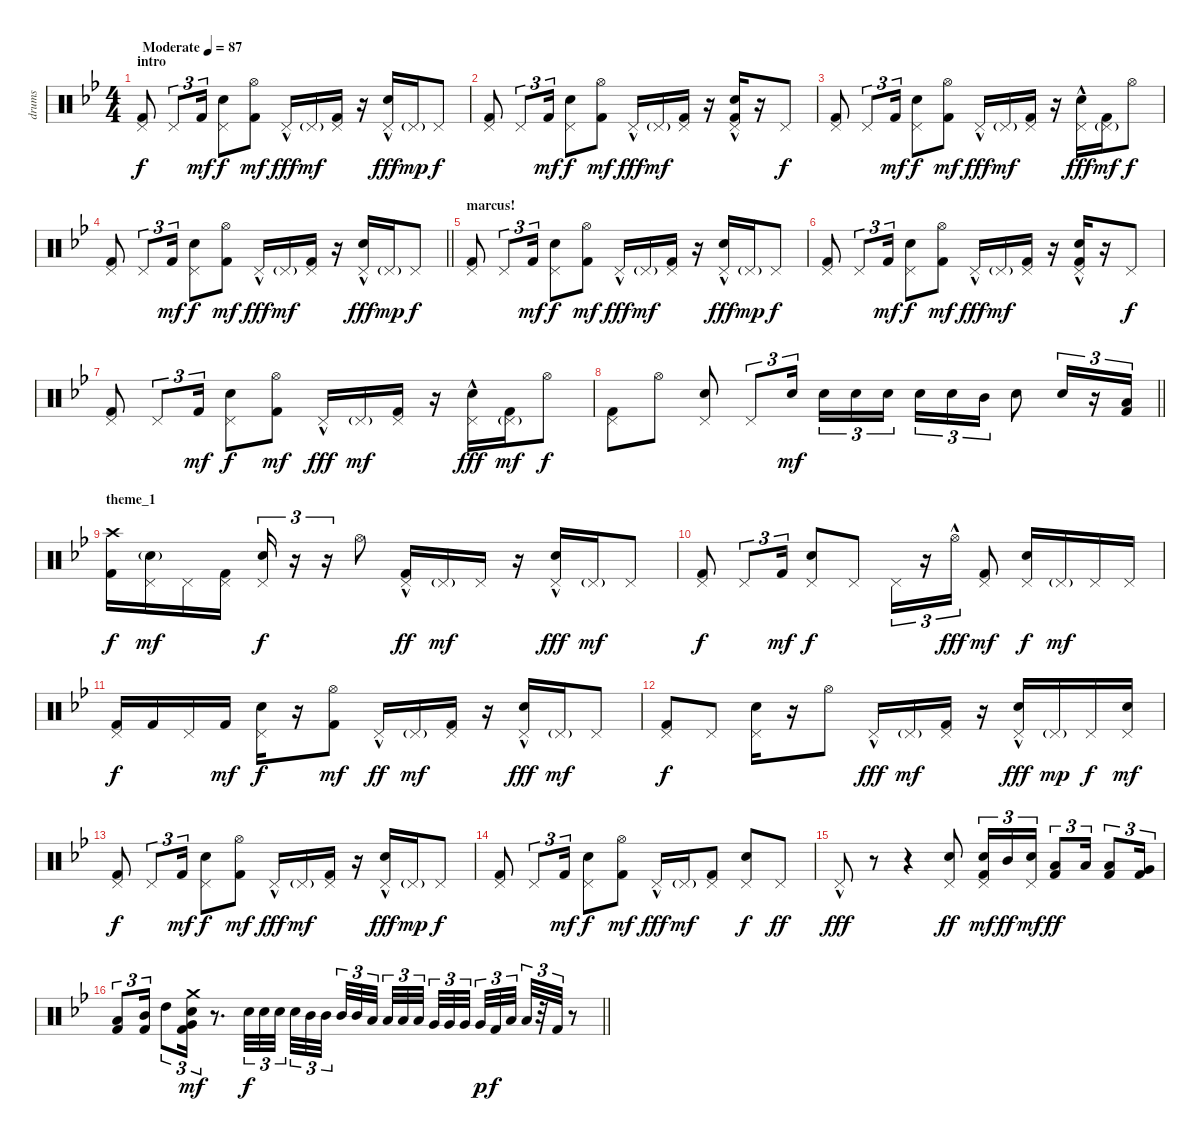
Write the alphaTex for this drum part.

\track ("drums" "drums") {instrument percussion}
\staff {score}
\articulation defaults
\ts (4 4)
\section ("" "intro")
\tempo (87 "Moderate")
\clef neutral
\ks gminor
("Pedal Hi-Hat (hit)" "Kick (hit) 2").8{dy f} "Pedal Hi-Hat (hit)".8{tu (3 2)} "Kick (hit) 2".16{tu (3 2) dy mf} ("Pedal Hi-Hat (hit)" "Electric Snare (hit)").8{dy f} ("Hi-Hat (open)" "Kick (hit) 2").8{dy mf} "Pedal Hi-Hat (hit)"{hac}.16{dy fff} "Pedal Hi-Hat (hit)"{g}.16{dy mf} ("Pedal Hi-Hat (hit)" "Kick (hit) 2").16 r.16 ("Pedal Hi-Hat (hit)"{hac} "Electric Snare (hit)").16{dy fff} "Pedal Hi-Hat (hit)"{g}.16{dy mp} "Pedal Hi-Hat (hit)".8{dy f} |
("Pedal Hi-Hat (hit)" "Kick (hit) 2").8 "Pedal Hi-Hat (hit)".8{tu (3 2)} "Kick (hit) 2".16{tu (3 2) dy mf} ("Pedal Hi-Hat (hit)" "Electric Snare (hit)").8{dy f} ("Hi-Hat (open)" "Kick (hit) 2").8{dy mf} "Pedal Hi-Hat (hit)"{hac}.16{dy fff} "Pedal Hi-Hat (hit)"{g}.16{dy mf} ("Pedal Hi-Hat (hit)" "Kick (hit) 2").16 r.16 ("Pedal Hi-Hat (hit)"{hac} "Electric Snare (hit)" "Kick (hit) 2").16 r.16 "Pedal Hi-Hat (hit)".8{dy f} |
("Pedal Hi-Hat (hit)" "Kick (hit) 2").8 "Pedal Hi-Hat (hit)".8{tu (3 2)} "Kick (hit) 2".16{tu (3 2) dy mf} ("Pedal Hi-Hat (hit)" "Electric Snare (hit)").8{dy f} ("Hi-Hat (open)" "Kick (hit) 2").8{dy mf} "Pedal Hi-Hat (hit)"{hac}.16{dy fff} "Pedal Hi-Hat (hit)"{g}.16{dy mf} ("Pedal Hi-Hat (hit)" "Kick (hit) 2").16 r.16 ("Pedal Hi-Hat (hit)"{hac} "Electric Snare (hit)").16{dy fff} ("Pedal Hi-Hat (hit)"{g} "Kick (hit) 2").16{dy mf} "Hi-Hat (open)".8{dy f} |
\barLineRight lightlight
("Pedal Hi-Hat (hit)" "Kick (hit) 2").8 "Pedal Hi-Hat (hit)".8{tu (3 2)} "Kick (hit) 2".16{tu (3 2) dy mf} ("Pedal Hi-Hat (hit)" "Electric Snare (hit)").8{dy f} ("Hi-Hat (open)" "Kick (hit) 2").8{dy mf} "Pedal Hi-Hat (hit)"{hac}.16{dy fff} "Pedal Hi-Hat (hit)"{g}.16{dy mf} ("Pedal Hi-Hat (hit)" "Kick (hit) 2").16 r.16 ("Pedal Hi-Hat (hit)"{hac} "Electric Snare (hit)").16{dy fff} "Pedal Hi-Hat (hit)"{g}.16{dy mp} "Pedal Hi-Hat (hit)".8{dy f} |
\section ("" "marcus!")
("Pedal Hi-Hat (hit)" "Kick (hit) 2").8 "Pedal Hi-Hat (hit)".8{tu (3 2)} "Kick (hit) 2".16{tu (3 2) dy mf} ("Pedal Hi-Hat (hit)" "Electric Snare (hit)").8{dy f} ("Hi-Hat (open)" "Kick (hit) 2").8{dy mf} "Pedal Hi-Hat (hit)"{hac}.16{dy fff} "Pedal Hi-Hat (hit)"{g}.16{dy mf} ("Pedal Hi-Hat (hit)" "Kick (hit) 2").16 r.16 ("Pedal Hi-Hat (hit)"{hac} "Electric Snare (hit)").16{dy fff} "Pedal Hi-Hat (hit)"{g}.16{dy mp} "Pedal Hi-Hat (hit)".8{dy f} |
("Pedal Hi-Hat (hit)" "Kick (hit) 2").8 "Pedal Hi-Hat (hit)".8{tu (3 2)} "Kick (hit) 2".16{tu (3 2) dy mf} ("Pedal Hi-Hat (hit)" "Electric Snare (hit)").8{dy f} ("Hi-Hat (open)" "Kick (hit) 2").8{dy mf} "Pedal Hi-Hat (hit)"{hac}.16{dy fff} "Pedal Hi-Hat (hit)"{g}.16{dy mf} ("Pedal Hi-Hat (hit)" "Kick (hit) 2").16 r.16 ("Pedal Hi-Hat (hit)"{hac} "Electric Snare (hit)" "Kick (hit) 2").16 r.16 "Pedal Hi-Hat (hit)".8{dy f} |
("Pedal Hi-Hat (hit)" "Kick (hit) 2").8 "Pedal Hi-Hat (hit)".8{tu (3 2)} "Kick (hit) 2".16{tu (3 2) dy mf} ("Pedal Hi-Hat (hit)" "Electric Snare (hit)").8{dy f} ("Hi-Hat (open)" "Kick (hit) 2").8{dy mf} "Pedal Hi-Hat (hit)"{hac}.16{dy fff} "Pedal Hi-Hat (hit)"{g}.16{dy mf} ("Pedal Hi-Hat (hit)" "Kick (hit) 2").16 r.16 ("Pedal Hi-Hat (hit)"{hac} "Electric Snare (hit)").16{dy fff} ("Pedal Hi-Hat (hit)"{g} "Kick (hit) 2").16{dy mf} "Hi-Hat (open)".8{dy f} |
\barLineRight lightlight
("Pedal Hi-Hat (hit)" "Kick (hit) 2").8 "Hi-Hat (open)".8 ("Pedal Hi-Hat (hit)" "Electric Snare (hit)").8 "Pedal Hi-Hat (hit)".8{tu (3 2)} "Electric Snare (hit)".16{tu (3 2) dy mf} "Electric Snare (hit)".16{tu (3 2)} "Electric Snare (hit)".16{tu (3 2)} "Electric Snare (hit)".16{tu (3 2) beam splitsecondary} "Electric Snare (hit)".16{tu (3 2)} "Electric Snare (hit)".16{tu (3 2)} "Mid Tom (hit)".16{tu (3 2)} "Electric Snare (hit)".8 "Electric Snare (hit)".16{tu (3 2)} r.16{tu (3 2)} ("Low Floor Tom (hit)" "Kick (hit) 2").16{tu (3 2)} |
\section ("" "theme_1")
("Crash high (hit)" "Kick (hit) 2").16{dy f} ("Pedal Hi-Hat (hit)" "Electric Snare (hit)"{g}).16{dy mf} "Pedal Hi-Hat (hit)".16 ("Pedal Hi-Hat (hit)" "Kick (hit) 2").16 ("Pedal Hi-Hat (hit)" "Electric Snare (hit)").16{tu (3 2) dy f} r.16{tu (3 2)} r.16{tu (3 2)} "Hi-Hat (open)".8 ("Pedal Hi-Hat (hit)"{hac} "Kick (hit) 2").16{dy ff} "Pedal Hi-Hat (hit)"{g}.16{dy mf} "Pedal Hi-Hat (hit)".16 r.16 ("Pedal Hi-Hat (hit)"{hac} "Electric Snare (hit)").16{dy fff} "Pedal Hi-Hat (hit)"{g}.16{dy mf} "Pedal Hi-Hat (hit)".8 |
("Pedal Hi-Hat (hit)" "Kick (hit) 2").8{dy f} "Pedal Hi-Hat (hit)".8{tu (3 2)} "Kick (hit) 2".16{tu (3 2) dy mf} ("Pedal Hi-Hat (hit)" "Electric Snare (hit)").8{dy f} "Pedal Hi-Hat (hit)".8 "Pedal Hi-Hat (hit)".16{tu (3 2)} r.16{tu (3 2)} "Hi-Hat (open)"{hac}.16{tu (3 2) dy fff} ("Pedal Hi-Hat (hit)" "Kick (hit) 2").8{dy mf} ("Pedal Hi-Hat (hit)" "Electric Snare (hit)").16{dy f} "Pedal Hi-Hat (hit)"{g}.16{dy mf} "Pedal Hi-Hat (hit)".16 "Pedal Hi-Hat (hit)".16 |
("Pedal Hi-Hat (hit)" "Kick (hit) 2").16{dy f} "Kick (hit) 2".16 "Pedal Hi-Hat (hit)".16 "Kick (hit) 2".16{dy mf} ("Pedal Hi-Hat (hit)" "Electric Snare (hit)").16{dy f} r.16 ("Hi-Hat (open)" "Kick (hit) 2").8{dy mf} "Pedal Hi-Hat (hit)"{hac}.16{dy ff} "Pedal Hi-Hat (hit)"{g}.16{dy mf} ("Pedal Hi-Hat (hit)" "Kick (hit) 2").16 r.16 ("Pedal Hi-Hat (hit)"{hac} "Electric Snare (hit)").16{dy fff} "Pedal Hi-Hat (hit)"{g}.16{dy mf} "Pedal Hi-Hat (hit)".8 |
("Pedal Hi-Hat (hit)" "Kick (hit) 2").8{dy f} "Pedal Hi-Hat (hit)".8 ("Pedal Hi-Hat (hit)" "Electric Snare (hit)").16 r.16 "Hi-Hat (open)".8 "Pedal Hi-Hat (hit)"{hac}.16{dy fff} "Pedal Hi-Hat (hit)"{g}.16{dy mf} ("Pedal Hi-Hat (hit)" "Kick (hit) 2").16 r.16 ("Pedal Hi-Hat (hit)"{hac} "Electric Snare (hit)").16{dy fff} "Pedal Hi-Hat (hit)"{g}.16{dy mp} "Pedal Hi-Hat (hit)".16{dy f} ("Pedal Hi-Hat (hit)" "Electric Snare (hit)").16{dy mf} |
("Pedal Hi-Hat (hit)" "Kick (hit) 2").8{dy f} "Pedal Hi-Hat (hit)".8{tu (3 2)} "Kick (hit) 2".16{tu (3 2) dy mf} ("Pedal Hi-Hat (hit)" "Electric Snare (hit)").8{dy f} ("Hi-Hat (open)" "Kick (hit) 2").8{dy mf} "Pedal Hi-Hat (hit)"{hac}.16{dy fff} "Pedal Hi-Hat (hit)"{g}.16{dy mf} ("Pedal Hi-Hat (hit)" "Kick (hit) 2").16 r.16 ("Pedal Hi-Hat (hit)"{hac} "Electric Snare (hit)").16{dy fff} "Pedal Hi-Hat (hit)"{g}.16{dy mp} "Pedal Hi-Hat (hit)".8{dy f} |
("Pedal Hi-Hat (hit)" "Kick (hit) 2").8 "Pedal Hi-Hat (hit)".8{tu (3 2)} "Kick (hit) 2".16{tu (3 2) dy mf} ("Pedal Hi-Hat (hit)" "Electric Snare (hit)").8{dy f} ("Hi-Hat (open)" "Kick (hit) 2").8{dy mf} "Pedal Hi-Hat (hit)"{hac}.16{dy fff} "Pedal Hi-Hat (hit)"{g}.16{dy mf} ("Pedal Hi-Hat (hit)" "Kick (hit) 2").8 ("Pedal Hi-Hat (hit)" "Electric Snare (hit)").8{dy f} "Pedal Hi-Hat (hit)".8{dy ff} |
"Pedal Hi-Hat (hit)"{hac}.8{dy fff} r.8 r.4 ("Pedal Hi-Hat (hit)" "Electric Snare (hit)").8{dy ff} ("Pedal Hi-Hat (hit)" "Electric Snare (hit)" "Kick (hit) 2").16{tu (3 2) dy mf} "Mid Tom (hit)".16{tu (3 2) dy ff} ("Pedal Hi-Hat (hit)" "Electric Snare (hit)").16{tu (3 2) dy mf} ("Low Tom (hit)" "Kick (hit) 2").8{tu (3 2) dy ff} "Low Floor Tom (hit)".16{tu (3 2)} ("Low Floor Tom (hit)" "Kick (hit) 2").8{tu (3 2)} ("Very Low Tom (hit)" "Kick (hit) 2").16{tu (3 2)} |
\barLineRight lightlight
("Low Tom (hit)" "Kick (hit) 2").8{tu (3 2)} ("Mid Tom (hit)" "Kick (hit) 2").16{tu (3 2)} "High Tom (hit)".8{tu (3 2)} ("Crash medium (hit)" "Electric Snare (hit)" "Very Low Tom (hit)" "Kick (hit) 2").16{tu (3 2) dy mf} r.8{d} "Electric Snare (hit)".32{tu (3 2) dy f} "Electric Snare (hit)".32{tu (3 2)} "Electric Snare (hit)".32{tu (3 2)} "Electric Snare (hit)".32{tu (3 2)} "Mid Tom (hit)".32{tu (3 2)} "Mid Tom (hit)".32{tu (3 2) beam splitsecondary} "Mid Tom (hit)".32{tu (3 2)} "Mid Tom (hit)".32{tu (3 2)} "Low Tom (hit)".32{tu (3 2) beam splitsecondary} "Low Tom (hit)".32{tu (3 2)} "Low Tom (hit)".32{tu (3 2)} "Low Tom (hit)".32{tu (3 2) beam splitsecondary} "Very Low Tom (hit)".32{tu (3 2)} "Very Low Tom (hit)".32{tu (3 2)} "Very Low Tom (hit)".32{tu (3 2)} "Very Low Tom (hit)".32{tu (3 2) dy p} "Kick (hit) 2".32{tu (3 2) dy f} "Low Floor Tom (hit)".32{tu (3 2) beam splitsecondary} "Low Floor Tom (hit)".32{tu (3 2)} r.32{tu (3 2)} "Kick (hit) 2".32{tu (3 2)} r.8
